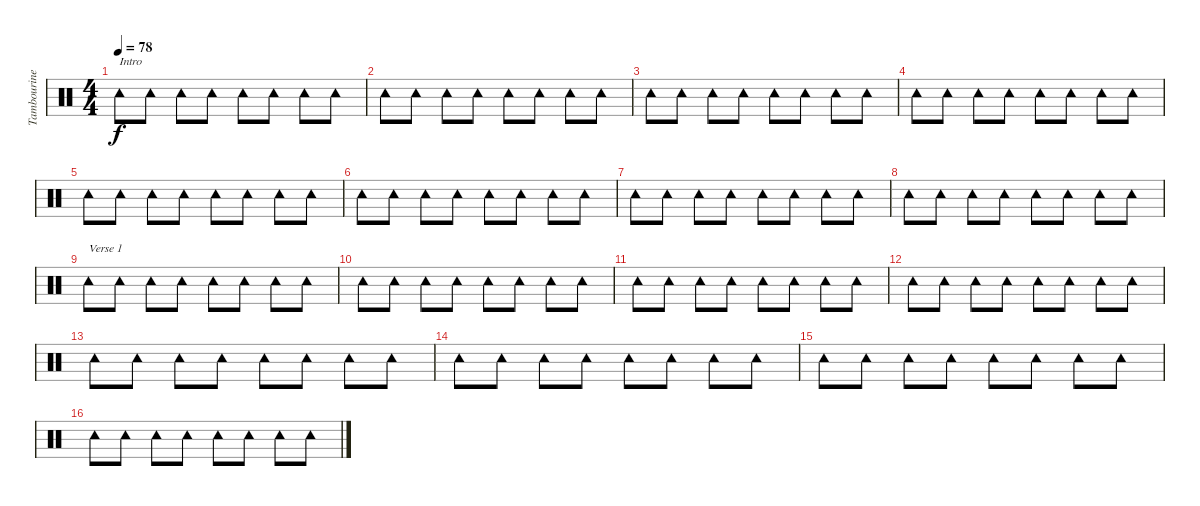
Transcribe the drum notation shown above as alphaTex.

\track ("Tambourine" "Tambourine") {instrument percussion}
\staff {score}
\articulation defaults
\ts (4 4)
\tempo 78
\clef neutral
\ks c "Tambourine (hit)".8{txt "Intro" dy f} "Tambourine (hit)".8 "Tambourine (hit)".8 "Tambourine (hit)".8 "Tambourine (hit)".8 "Tambourine (hit)".8 "Tambourine (hit)".8 "Tambourine (hit)".8
|
"Tambourine (hit)".8 "Tambourine (hit)".8 "Tambourine (hit)".8 "Tambourine (hit)".8 "Tambourine (hit)".8 "Tambourine (hit)".8 "Tambourine (hit)".8 "Tambourine (hit)".8 |
"Tambourine (hit)".8 "Tambourine (hit)".8 "Tambourine (hit)".8 "Tambourine (hit)".8 "Tambourine (hit)".8 "Tambourine (hit)".8 "Tambourine (hit)".8 "Tambourine (hit)".8 |
"Tambourine (hit)".8 "Tambourine (hit)".8 "Tambourine (hit)".8 "Tambourine (hit)".8 "Tambourine (hit)".8 "Tambourine (hit)".8 "Tambourine (hit)".8 "Tambourine (hit)".8 |
"Tambourine (hit)".8 "Tambourine (hit)".8 "Tambourine (hit)".8 "Tambourine (hit)".8 "Tambourine (hit)".8 "Tambourine (hit)".8 "Tambourine (hit)".8 "Tambourine (hit)".8 |
"Tambourine (hit)".8 "Tambourine (hit)".8 "Tambourine (hit)".8 "Tambourine (hit)".8 "Tambourine (hit)".8 "Tambourine (hit)".8 "Tambourine (hit)".8 "Tambourine (hit)".8 |
"Tambourine (hit)".8 "Tambourine (hit)".8 "Tambourine (hit)".8 "Tambourine (hit)".8 "Tambourine (hit)".8 "Tambourine (hit)".8 "Tambourine (hit)".8 "Tambourine (hit)".8 |
"Tambourine (hit)".8 "Tambourine (hit)".8 "Tambourine (hit)".8 "Tambourine (hit)".8 "Tambourine (hit)".8 "Tambourine (hit)".8 "Tambourine (hit)".8 "Tambourine (hit)".8 |
"Tambourine (hit)".8{txt "Verse 1"} "Tambourine (hit)".8 "Tambourine (hit)".8 "Tambourine (hit)".8 "Tambourine (hit)".8 "Tambourine (hit)".8 "Tambourine (hit)".8 "Tambourine (hit)".8 |
"Tambourine (hit)".8 "Tambourine (hit)".8 "Tambourine (hit)".8 "Tambourine (hit)".8 "Tambourine (hit)".8 "Tambourine (hit)".8 "Tambourine (hit)".8 "Tambourine (hit)".8 |
"Tambourine (hit)".8 "Tambourine (hit)".8 "Tambourine (hit)".8 "Tambourine (hit)".8 "Tambourine (hit)".8 "Tambourine (hit)".8 "Tambourine (hit)".8 "Tambourine (hit)".8 |
"Tambourine (hit)".8 "Tambourine (hit)".8 "Tambourine (hit)".8 "Tambourine (hit)".8 "Tambourine (hit)".8 "Tambourine (hit)".8 "Tambourine (hit)".8 "Tambourine (hit)".8 |
"Tambourine (hit)".8 "Tambourine (hit)".8 "Tambourine (hit)".8 "Tambourine (hit)".8 "Tambourine (hit)".8 "Tambourine (hit)".8 "Tambourine (hit)".8 "Tambourine (hit)".8 |
"Tambourine (hit)".8 "Tambourine (hit)".8 "Tambourine (hit)".8 "Tambourine (hit)".8 "Tambourine (hit)".8 "Tambourine (hit)".8 "Tambourine (hit)".8 "Tambourine (hit)".8 |
"Tambourine (hit)".8 "Tambourine (hit)".8 "Tambourine (hit)".8 "Tambourine (hit)".8 "Tambourine (hit)".8 "Tambourine (hit)".8 "Tambourine (hit)".8 "Tambourine (hit)".8 |
"Tambourine (hit)".8 "Tambourine (hit)".8 "Tambourine (hit)".8 "Tambourine (hit)".8 "Tambourine (hit)".8 "Tambourine (hit)".8 "Tambourine (hit)".8 "Tambourine (hit)".8
